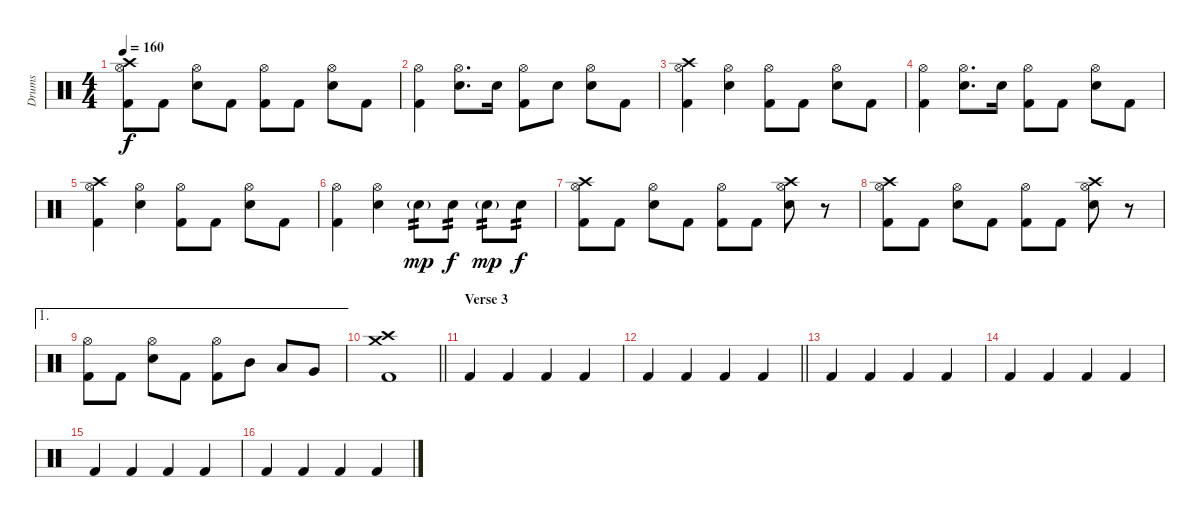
\track ("Drums" "Drums") {instrument percussion}
\staff {score}
\articulation defaults
\ts (4 4)
\tempo 160
\clef neutral
\ks c
("Crash high (hit)" "Hi-Hat (open)" "Kick (hit) 2").8{dy f} "Kick (hit) 2".8 ("Hi-Hat (open)" "Electric Snare (hit)").8 "Kick (hit) 2".8 ("Hi-Hat (open)" "Kick (hit) 2").8 "Kick (hit) 2".8 ("Hi-Hat (open)" "Electric Snare (hit)").8 "Kick (hit) 2".8 |
("Hi-Hat (open)" "Kick (hit) 2").4 ("Hi-Hat (open)" "Electric Snare (hit)").8{d} "Electric Snare (hit)".16 ("Hi-Hat (open)" "Kick (hit) 2").8 "Electric Snare (hit)".8 ("Hi-Hat (open)" "Electric Snare (hit)").8 "Kick (hit) 2".8 |
("Crash high (hit)" "Hi-Hat (open)" "Kick (hit) 2").4 ("Hi-Hat (open)" "Electric Snare (hit)").4 ("Hi-Hat (open)" "Kick (hit) 2").8 "Kick (hit) 2".8 ("Hi-Hat (open)" "Electric Snare (hit)").8 "Kick (hit) 2".8 |
("Hi-Hat (open)" "Kick (hit) 2").4 ("Hi-Hat (open)" "Electric Snare (hit)").8{d} "Electric Snare (hit)".16 ("Hi-Hat (open)" "Kick (hit) 2").8 "Kick (hit) 2".8 ("Hi-Hat (open)" "Electric Snare (hit)").8 "Kick (hit) 2".8 |
("Crash high (hit)" "Hi-Hat (open)" "Kick (hit) 2").4 ("Hi-Hat (open)" "Electric Snare (hit)").4 ("Hi-Hat (open)" "Kick (hit) 2").8 "Kick (hit) 2".8 ("Hi-Hat (open)" "Electric Snare (hit)").8 "Kick (hit) 2".8 |
("Hi-Hat (open)" "Kick (hit) 2").4 ("Hi-Hat (open)" "Electric Snare (hit)").4 "Electric Snare (hit)"{g}.8{tp 2 dy mp} "Electric Snare (hit)".8{tp 2 dy f} "Electric Snare (hit)"{g}.8{tp 2 dy mp} "Electric Snare (hit)".8{tp 2 dy f} |
("Crash high (hit)" "Hi-Hat (open)" "Kick (hit) 2").8 "Kick (hit) 2".8 ("Hi-Hat (open)" "Electric Snare (hit)").8 "Kick (hit) 2".8 ("Hi-Hat (open)" "Kick (hit) 2").8 "Kick (hit) 2".8 ("Crash high (hit)" "Hi-Hat (open)" "Electric Snare (hit)").8 r.8 |
("Crash high (hit)" "Hi-Hat (open)" "Kick (hit) 2").8 "Kick (hit) 2".8 ("Hi-Hat (open)" "Electric Snare (hit)").8 "Kick (hit) 2".8 ("Hi-Hat (open)" "Kick (hit) 2").8 "Kick (hit) 2".8 ("Crash high (hit)" "Hi-Hat (open)" "Electric Snare (hit)").8 r.8 |
\ae 1
("Hi-Hat (open)" "Kick (hit) 2").8 "Kick (hit) 2".8 ("Hi-Hat (open)" "Electric Snare (hit)").8 "Kick (hit) 2".8 ("Hi-Hat (open)" "Kick (hit) 2").8 "Mid Tom (hit)".8 "Low Tom (hit)".8 "Very Low Tom (hit)".8 |
\barLineRight lightlight
("Crash high (hit)" "Crash medium (hit)" "Kick (hit) 2").1 |
\section ("" "Verse 3")
"Kick (hit) 2".4 "Kick (hit) 2".4 "Kick (hit) 2".4 "Kick (hit) 2".4 |
\barLineRight lightlight "Kick (hit) 2".4 "Kick (hit) 2".4 "Kick (hit) 2".4 "Kick (hit) 2".4
|
"Kick (hit) 2".4 "Kick (hit) 2".4 "Kick (hit) 2".4 "Kick (hit) 2".4 |
"Kick (hit) 2".4 "Kick (hit) 2".4 "Kick (hit) 2".4 "Kick (hit) 2".4 |
"Kick (hit) 2".4 "Kick (hit) 2".4 "Kick (hit) 2".4 "Kick (hit) 2".4 |
"Kick (hit) 2".4 "Kick (hit) 2".4 "Kick (hit) 2".4 "Kick (hit) 2".4
